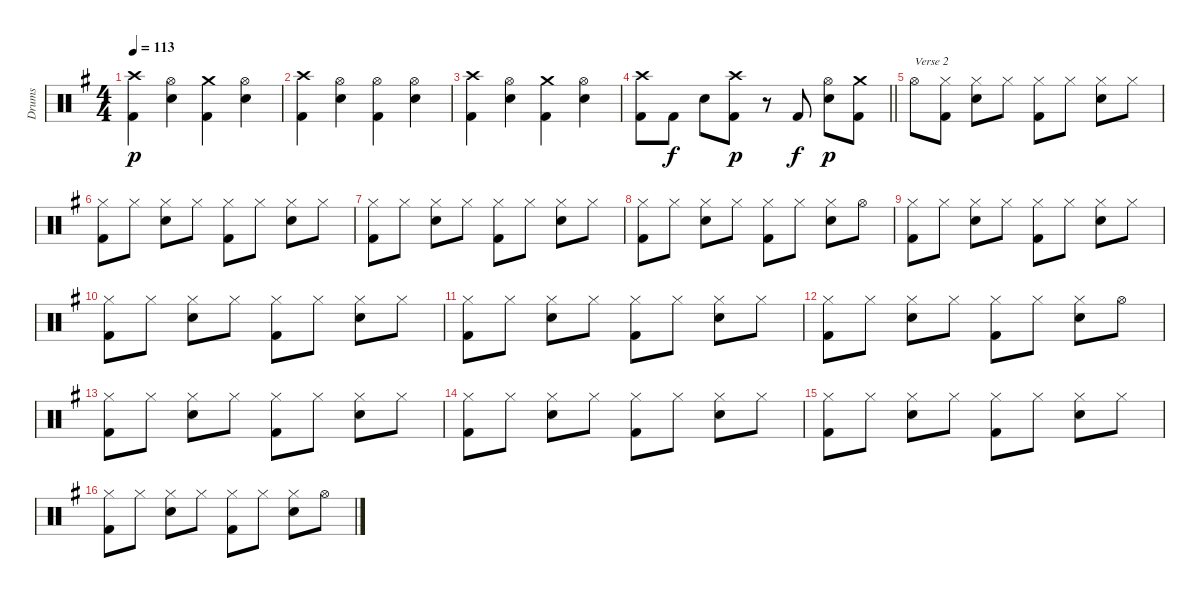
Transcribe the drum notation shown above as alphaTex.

\track ("Drums" "Drums") {instrument percussion}
\staff {score}
\articulation defaults
\ts (4 4)
\tempo 113
\clef neutral
\ks g
("Crash high (hit)" "Kick (hit) 2").4{dy p} ("Hi-Hat (open)" "Electric Snare (hit)").4 ("Crash medium (hit)" "Kick (hit) 2").4 ("Hi-Hat (open)" "Electric Snare (hit)").4 |
("Crash high (hit)" "Kick (hit) 2").4 ("Hi-Hat (open)" "Electric Snare (hit)").4 ("Hi-Hat (open)" "Kick (hit) 2").4 ("Hi-Hat (open)" "Electric Snare (hit)").4 |
("Crash high (hit)" "Kick (hit) 2").4 ("Hi-Hat (open)" "Electric Snare (hit)").4 ("Crash medium (hit)" "Kick (hit) 2").4 ("Hi-Hat (open)" "Electric Snare (hit)").4 |
\barLineRight lightlight
("Kick (hit) 2" "Crash high (hit)").8 "Kick (hit) 2".8{dy f} "Electric Snare (hit)".8 ("Kick (hit) 2" "Crash high (hit)").8{dy p} r.8 "Kick (hit) 2".8{dy f} ("Electric Snare (hit)" "Hi-Hat (open)").8{dy p} ("Kick (hit) 2" "Crash medium (hit)").8 |
"Hi-Hat (open)".8{txt "Verse 2"} ("Hi-Hat (closed)" "Kick (hit) 2").8 ("Hi-Hat (closed)" "Electric Snare (hit)").8 "Hi-Hat (closed)".8 ("Hi-Hat (closed)" "Kick (hit) 2").8 "Hi-Hat (closed)".8 ("Hi-Hat (closed)" "Electric Snare (hit)").8 "Hi-Hat (closed)".8 |
("Hi-Hat (closed)" "Kick (hit) 2").8 "Hi-Hat (closed)".8 ("Hi-Hat (closed)" "Electric Snare (hit)").8 "Hi-Hat (closed)".8 ("Hi-Hat (closed)" "Kick (hit) 2").8 "Hi-Hat (closed)".8 ("Hi-Hat (closed)" "Electric Snare (hit)").8 "Hi-Hat (closed)".8 |
("Hi-Hat (closed)" "Kick (hit) 2").8 "Hi-Hat (closed)".8 ("Hi-Hat (closed)" "Electric Snare (hit)").8 "Hi-Hat (closed)".8 ("Hi-Hat (closed)" "Kick (hit) 2").8 "Hi-Hat (closed)".8 ("Hi-Hat (closed)" "Electric Snare (hit)").8 "Hi-Hat (closed)".8 |
("Hi-Hat (closed)" "Kick (hit) 2").8 "Hi-Hat (closed)".8 ("Hi-Hat (closed)" "Electric Snare (hit)").8 "Hi-Hat (closed)".8 ("Hi-Hat (closed)" "Kick (hit) 2").8 "Hi-Hat (closed)".8 ("Hi-Hat (closed)" "Electric Snare (hit)").8 "Hi-Hat (open)".8 |
("Hi-Hat (closed)" "Kick (hit) 2").8 "Hi-Hat (closed)".8 ("Hi-Hat (closed)" "Electric Snare (hit)").8 "Hi-Hat (closed)".8 ("Hi-Hat (closed)" "Kick (hit) 2").8 "Hi-Hat (closed)".8 ("Hi-Hat (closed)" "Electric Snare (hit)").8 "Hi-Hat (closed)".8 |
("Hi-Hat (closed)" "Kick (hit) 2").8 "Hi-Hat (closed)".8 ("Hi-Hat (closed)" "Electric Snare (hit)").8 "Hi-Hat (closed)".8 ("Hi-Hat (closed)" "Kick (hit) 2").8 "Hi-Hat (closed)".8 ("Hi-Hat (closed)" "Electric Snare (hit)").8 "Hi-Hat (closed)".8 |
("Hi-Hat (closed)" "Kick (hit) 2").8 "Hi-Hat (closed)".8 ("Hi-Hat (closed)" "Electric Snare (hit)").8 "Hi-Hat (closed)".8 ("Hi-Hat (closed)" "Kick (hit) 2").8 "Hi-Hat (closed)".8 ("Hi-Hat (closed)" "Electric Snare (hit)").8 "Hi-Hat (closed)".8 |
("Hi-Hat (closed)" "Kick (hit) 2").8 "Hi-Hat (closed)".8 ("Hi-Hat (closed)" "Electric Snare (hit)").8 "Hi-Hat (closed)".8 ("Hi-Hat (closed)" "Kick (hit) 2").8 "Hi-Hat (closed)".8 ("Hi-Hat (closed)" "Electric Snare (hit)").8 "Hi-Hat (open)".8 |
("Hi-Hat (closed)" "Kick (hit) 2").8 "Hi-Hat (closed)".8 ("Hi-Hat (closed)" "Electric Snare (hit)").8 "Hi-Hat (closed)".8 ("Hi-Hat (closed)" "Kick (hit) 2").8 "Hi-Hat (closed)".8 ("Hi-Hat (closed)" "Electric Snare (hit)").8 "Hi-Hat (closed)".8 |
("Hi-Hat (closed)" "Kick (hit) 2").8 "Hi-Hat (closed)".8 ("Hi-Hat (closed)" "Electric Snare (hit)").8 "Hi-Hat (closed)".8 ("Hi-Hat (closed)" "Kick (hit) 2").8 "Hi-Hat (closed)".8 ("Hi-Hat (closed)" "Electric Snare (hit)").8 "Hi-Hat (closed)".8 |
("Hi-Hat (closed)" "Kick (hit) 2").8 "Hi-Hat (closed)".8 ("Hi-Hat (closed)" "Electric Snare (hit)").8 "Hi-Hat (closed)".8 ("Hi-Hat (closed)" "Kick (hit) 2").8 "Hi-Hat (closed)".8 ("Hi-Hat (closed)" "Electric Snare (hit)").8 "Hi-Hat (closed)".8 |
("Hi-Hat (closed)" "Kick (hit) 2").8 "Hi-Hat (closed)".8 ("Hi-Hat (closed)" "Electric Snare (hit)").8 "Hi-Hat (closed)".8 ("Hi-Hat (closed)" "Kick (hit) 2").8 "Hi-Hat (closed)".8 ("Hi-Hat (closed)" "Electric Snare (hit)").8 "Hi-Hat (open)".8
